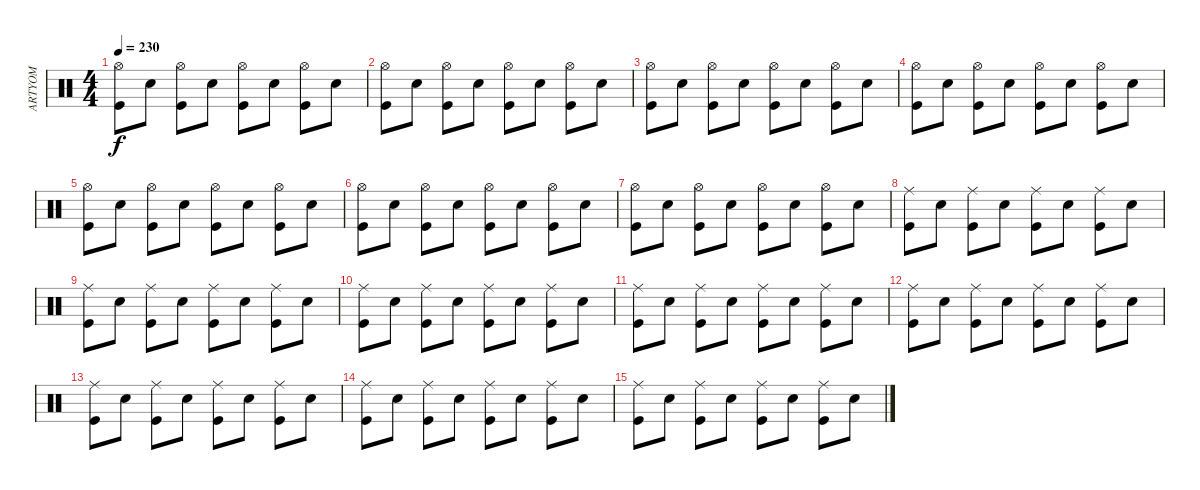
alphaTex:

\track ("ARTYOM" "ARTYOM") {instrument percussion}
\staff {score}
\articulation defaults
\ts (4 4)
\tempo 230
\clef neutral
\ks c
("Kick (hit)" "Hi-Hat (open)").8{dy f} "Snare (hit) 2".8 ("Kick (hit)" "Hi-Hat (open)").8 "Snare (hit) 2".8 ("Kick (hit)" "Hi-Hat (open)").8 "Snare (hit) 2".8 ("Kick (hit)" "Hi-Hat (open)").8 "Snare (hit) 2".8 |
("Kick (hit)" "Hi-Hat (open)").8 "Snare (hit) 2".8 ("Kick (hit)" "Hi-Hat (open)").8 "Snare (hit) 2".8 ("Kick (hit)" "Hi-Hat (open)").8 "Snare (hit) 2".8 ("Kick (hit)" "Hi-Hat (open)").8 "Snare (hit) 2".8 |
("Kick (hit)" "Hi-Hat (open)").8 "Snare (hit) 2".8 ("Kick (hit)" "Hi-Hat (open)").8 "Snare (hit) 2".8 ("Kick (hit)" "Hi-Hat (open)").8 "Snare (hit) 2".8 ("Kick (hit)" "Hi-Hat (open)").8 "Snare (hit) 2".8 |
("Kick (hit)" "Hi-Hat (open)").8 "Snare (hit) 2".8 ("Kick (hit)" "Hi-Hat (open)").8 "Snare (hit) 2".8 ("Kick (hit)" "Hi-Hat (open)").8 "Snare (hit) 2".8 ("Kick (hit)" "Hi-Hat (open)").8 "Snare (hit) 2".8 |
("Kick (hit)" "Hi-Hat (open)").8 "Snare (hit) 2".8 ("Kick (hit)" "Hi-Hat (open)").8 "Snare (hit) 2".8 ("Kick (hit)" "Hi-Hat (open)").8 "Snare (hit) 2".8 ("Kick (hit)" "Hi-Hat (open)").8 "Snare (hit) 2".8 |
("Kick (hit)" "Hi-Hat (open)").8 "Snare (hit) 2".8 ("Kick (hit)" "Hi-Hat (open)").8 "Snare (hit) 2".8 ("Kick (hit)" "Hi-Hat (open)").8 "Snare (hit) 2".8 ("Kick (hit)" "Hi-Hat (open)").8 "Snare (hit) 2".8 |
("Kick (hit)" "Hi-Hat (open)").8 "Snare (hit) 2".8 ("Kick (hit)" "Hi-Hat (open)").8 "Snare (hit) 2".8 ("Kick (hit)" "Hi-Hat (open)").8 "Snare (hit) 2".8 ("Kick (hit)" "Hi-Hat (open)").8 "Snare (hit) 2".8 |
("Kick (hit)" "Ride (middle)").8 "Snare (hit) 2".8 ("Kick (hit)" "Ride (middle)").8 "Snare (hit) 2".8 ("Kick (hit)" "Ride (middle)").8 "Snare (hit) 2".8 ("Kick (hit)" "Ride (middle)").8 "Snare (hit) 2".8 |
("Kick (hit)" "Ride (middle)").8 "Snare (hit) 2".8 ("Kick (hit)" "Ride (middle)").8 "Snare (hit) 2".8 ("Kick (hit)" "Ride (middle)").8 "Snare (hit) 2".8 ("Kick (hit)" "Ride (middle)").8 "Snare (hit) 2".8 |
("Kick (hit)" "Ride (middle)").8 "Snare (hit) 2".8 ("Kick (hit)" "Ride (middle)").8 "Snare (hit) 2".8 ("Kick (hit)" "Ride (middle)").8 "Snare (hit) 2".8 ("Kick (hit)" "Ride (middle)").8 "Snare (hit) 2".8 |
("Kick (hit)" "Ride (middle)").8 "Snare (hit) 2".8 ("Kick (hit)" "Ride (middle)").8 "Snare (hit) 2".8 ("Kick (hit)" "Ride (middle)").8 "Snare (hit) 2".8 ("Kick (hit)" "Ride (middle)").8 "Snare (hit) 2".8 |
("Kick (hit)" "Ride (middle)").8 "Snare (hit) 2".8 ("Kick (hit)" "Ride (middle)").8 "Snare (hit) 2".8 ("Kick (hit)" "Ride (middle)").8 "Snare (hit) 2".8 ("Kick (hit)" "Ride (middle)").8 "Snare (hit) 2".8 |
("Kick (hit)" "Ride (middle)").8 "Snare (hit) 2".8 ("Kick (hit)" "Ride (middle)").8 "Snare (hit) 2".8 ("Kick (hit)" "Ride (middle)").8 "Snare (hit) 2".8 ("Kick (hit)" "Ride (middle)").8 "Snare (hit) 2".8 |
("Kick (hit)" "Ride (middle)").8 "Snare (hit) 2".8 ("Kick (hit)" "Ride (middle)").8 "Snare (hit) 2".8 ("Kick (hit)" "Ride (middle)").8 "Snare (hit) 2".8 ("Kick (hit)" "Ride (middle)").8 "Snare (hit) 2".8 |
("Kick (hit)" "Ride (middle)").8 "Snare (hit) 2".8 ("Kick (hit)" "Ride (middle)").8 "Snare (hit) 2".8 ("Kick (hit)" "Ride (middle)").8 "Snare (hit) 2".8 ("Kick (hit)" "Ride (middle)").8 "Snare (hit) 2".8
